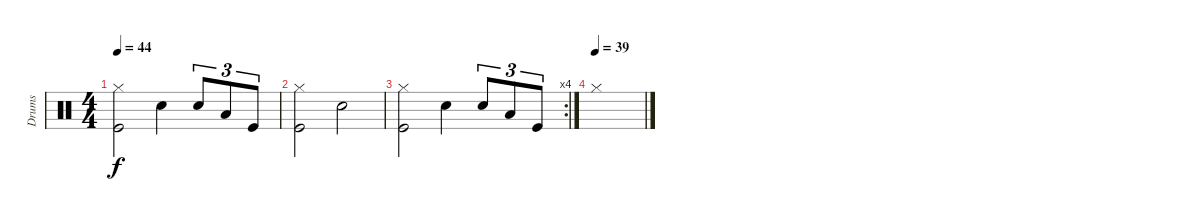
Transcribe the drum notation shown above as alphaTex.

\track ("Drums" "Drums") {instrument percussion}
\staff {score}
\articulation defaults
\ts (4 4)
\tempo 44
\clef neutral
\ks c
("Hi-Hat (closed)" "Kick (hit)").2{dy f} "Snare (hit) 2".4 "Snare (hit) 2".8{tu (3 2)} "Low Floor Tom (hit)".8{tu (3 2)} "Kick (hit)".8{tu (3 2)} |
("Hi-Hat (closed)" "Kick (hit)").2 "Snare (hit) 2".2 |
\rc 4
("Hi-Hat (closed)" "Kick (hit)").2 "Snare (hit) 2".4 "Snare (hit) 2".8{tu (3 2)} "Low Floor Tom (hit)".8{tu (3 2)} "Kick (hit)".8{tu (3 2)} |
\tempo (39)
"Hi-Hat (closed)".1
